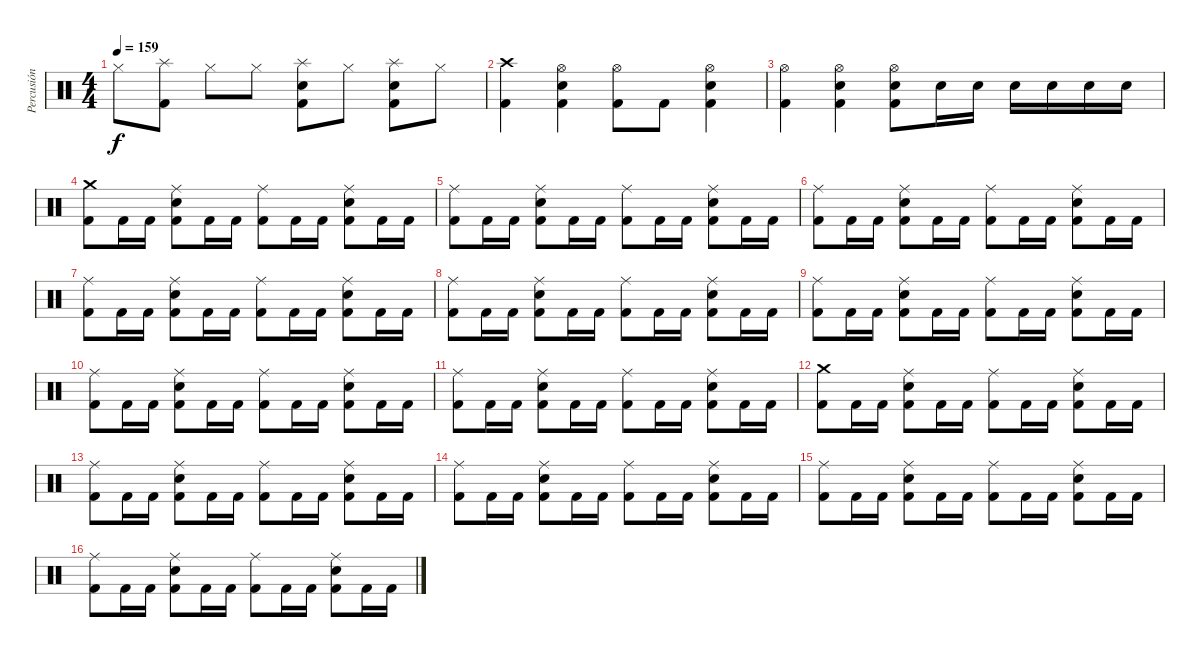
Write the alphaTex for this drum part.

\track ("Percusión" "Percusión") {instrument percussion}
\staff {score}
\articulation defaults
\ts (4 4)
\tempo 159
\clef neutral
\ks c "Hi-Hat (closed)".8{dy f}
("Splash (hit)" "Kick (hit) 2").8 "Hi-Hat (closed)".8 "Hi-Hat (closed)".8 ("Splash (hit)" "Electric Snare (hit)" "Kick (hit) 2").8 "Hi-Hat (closed)".8 ("Splash (hit)" "Electric Snare (hit)" "Kick (hit) 2").8 "Hi-Hat (closed)".8 |
("Crash high (hit)" "Kick (hit) 2").4 ("Hi-Hat (open)" "Electric Snare (hit)" "Kick (hit) 2").4 ("Hi-Hat (open)" "Kick (hit) 2").8 "Kick (hit) 2".8 ("Hi-Hat (open)" "Electric Snare (hit)" "Kick (hit) 2").4 |
("Hi-Hat (open)" "Kick (hit) 2").4 ("Hi-Hat (open)" "Electric Snare (hit)" "Kick (hit) 2").4 ("Hi-Hat (open)" "Electric Snare (hit)" "Kick (hit) 2").8 "Electric Snare (hit)".16 "Electric Snare (hit)".16 "Electric Snare (hit)".16 "Electric Snare (hit)".16 "Electric Snare (hit)".16 "Electric Snare (hit)".16 |
("Crash medium (hit)" "Kick (hit) 2").8 "Kick (hit) 2".16 "Kick (hit) 2".16 ("Ride (middle)" "Electric Snare (hit)" "Kick (hit) 2").8 "Kick (hit) 2".16 "Kick (hit) 2".16 ("Ride (middle)" "Kick (hit) 2").8 "Kick (hit) 2".16 "Kick (hit) 2".16 ("Ride (middle)" "Electric Snare (hit)" "Kick (hit) 2").8 "Kick (hit) 2".16 "Kick (hit) 2".16 |
("Ride (middle)" "Kick (hit) 2").8 "Kick (hit) 2".16 "Kick (hit) 2".16 ("Ride (middle)" "Electric Snare (hit)" "Kick (hit) 2").8 "Kick (hit) 2".16 "Kick (hit) 2".16 ("Ride (middle)" "Kick (hit) 2").8 "Kick (hit) 2".16 "Kick (hit) 2".16 ("Ride (middle)" "Electric Snare (hit)" "Kick (hit) 2").8 "Kick (hit) 2".16 "Kick (hit) 2".16 |
("Ride (middle)" "Kick (hit) 2").8 "Kick (hit) 2".16 "Kick (hit) 2".16 ("Ride (middle)" "Electric Snare (hit)" "Kick (hit) 2").8 "Kick (hit) 2".16 "Kick (hit) 2".16 ("Ride (middle)" "Kick (hit) 2").8 "Kick (hit) 2".16 "Kick (hit) 2".16 ("Ride (middle)" "Electric Snare (hit)" "Kick (hit) 2").8 "Kick (hit) 2".16 "Kick (hit) 2".16 |
("Ride (middle)" "Kick (hit) 2").8 "Kick (hit) 2".16 "Kick (hit) 2".16 ("Ride (middle)" "Electric Snare (hit)" "Kick (hit) 2").8 "Kick (hit) 2".16 "Kick (hit) 2".16 ("Ride (middle)" "Kick (hit) 2").8 "Kick (hit) 2".16 "Kick (hit) 2".16 ("Ride (middle)" "Electric Snare (hit)" "Kick (hit) 2").8 "Kick (hit) 2".16 "Kick (hit) 2".16 |
("Ride (middle)" "Kick (hit) 2").8 "Kick (hit) 2".16 "Kick (hit) 2".16 ("Ride (middle)" "Electric Snare (hit)" "Kick (hit) 2").8 "Kick (hit) 2".16 "Kick (hit) 2".16 ("Ride (middle)" "Kick (hit) 2").8 "Kick (hit) 2".16 "Kick (hit) 2".16 ("Ride (middle)" "Electric Snare (hit)" "Kick (hit) 2").8 "Kick (hit) 2".16 "Kick (hit) 2".16 |
("Ride (middle)" "Kick (hit) 2").8 "Kick (hit) 2".16 "Kick (hit) 2".16 ("Ride (middle)" "Electric Snare (hit)" "Kick (hit) 2").8 "Kick (hit) 2".16 "Kick (hit) 2".16 ("Ride (middle)" "Kick (hit) 2").8 "Kick (hit) 2".16 "Kick (hit) 2".16 ("Ride (middle)" "Electric Snare (hit)" "Kick (hit) 2").8 "Kick (hit) 2".16 "Kick (hit) 2".16 |
("Ride (middle)" "Kick (hit) 2").8 "Kick (hit) 2".16 "Kick (hit) 2".16 ("Ride (middle)" "Electric Snare (hit)" "Kick (hit) 2").8 "Kick (hit) 2".16 "Kick (hit) 2".16 ("Ride (middle)" "Kick (hit) 2").8 "Kick (hit) 2".16 "Kick (hit) 2".16 ("Ride (middle)" "Electric Snare (hit)" "Kick (hit) 2").8 "Kick (hit) 2".16 "Kick (hit) 2".16 |
("Ride (middle)" "Kick (hit) 2").8 "Kick (hit) 2".16 "Kick (hit) 2".16 ("Ride (middle)" "Electric Snare (hit)" "Kick (hit) 2").8 "Kick (hit) 2".16 "Kick (hit) 2".16 ("Ride (middle)" "Kick (hit) 2").8 "Kick (hit) 2".16 "Kick (hit) 2".16 ("Ride (middle)" "Electric Snare (hit)" "Kick (hit) 2").8 "Kick (hit) 2".16 "Kick (hit) 2".16 |
("Crash medium (hit)" "Kick (hit) 2").8 "Kick (hit) 2".16 "Kick (hit) 2".16 ("Ride (middle)" "Electric Snare (hit)" "Kick (hit) 2").8 "Kick (hit) 2".16 "Kick (hit) 2".16 ("Ride (middle)" "Kick (hit) 2").8 "Kick (hit) 2".16 "Kick (hit) 2".16 ("Ride (middle)" "Electric Snare (hit)" "Kick (hit) 2").8 "Kick (hit) 2".16 "Kick (hit) 2".16 |
("Ride (middle)" "Kick (hit) 2").8 "Kick (hit) 2".16 "Kick (hit) 2".16 ("Ride (middle)" "Electric Snare (hit)" "Kick (hit) 2").8 "Kick (hit) 2".16 "Kick (hit) 2".16 ("Ride (middle)" "Kick (hit) 2").8 "Kick (hit) 2".16 "Kick (hit) 2".16 ("Ride (middle)" "Electric Snare (hit)" "Kick (hit) 2").8 "Kick (hit) 2".16 "Kick (hit) 2".16 |
("Ride (middle)" "Kick (hit) 2").8 "Kick (hit) 2".16 "Kick (hit) 2".16 ("Ride (middle)" "Electric Snare (hit)" "Kick (hit) 2").8 "Kick (hit) 2".16 "Kick (hit) 2".16 ("Ride (middle)" "Kick (hit) 2").8 "Kick (hit) 2".16 "Kick (hit) 2".16 ("Ride (middle)" "Electric Snare (hit)" "Kick (hit) 2").8 "Kick (hit) 2".16 "Kick (hit) 2".16 |
("Ride (middle)" "Kick (hit) 2").8 "Kick (hit) 2".16 "Kick (hit) 2".16 ("Ride (middle)" "Electric Snare (hit)" "Kick (hit) 2").8 "Kick (hit) 2".16 "Kick (hit) 2".16 ("Ride (middle)" "Kick (hit) 2").8 "Kick (hit) 2".16 "Kick (hit) 2".16 ("Ride (middle)" "Electric Snare (hit)" "Kick (hit) 2").8 "Kick (hit) 2".16 "Kick (hit) 2".16 |
("Ride (middle)" "Kick (hit) 2").8 "Kick (hit) 2".16 "Kick (hit) 2".16 ("Ride (middle)" "Electric Snare (hit)" "Kick (hit) 2").8 "Kick (hit) 2".16 "Kick (hit) 2".16 ("Ride (middle)" "Kick (hit) 2").8 "Kick (hit) 2".16 "Kick (hit) 2".16 ("Ride (middle)" "Electric Snare (hit)" "Kick (hit) 2").8 "Kick (hit) 2".16 "Kick (hit) 2".16
